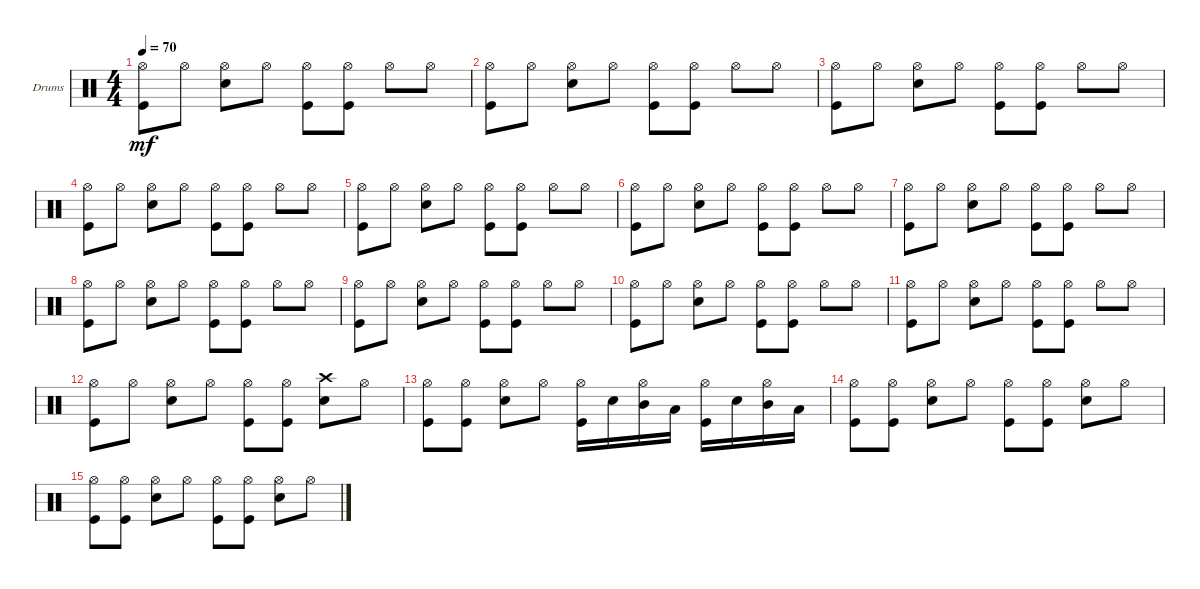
\defaultSystemsLayout 4
\bracketExtendMode groupsimilarinstruments
\firstSystemTrackNameOrientation horizontal
\otherSystemsTrackNameOrientation horizontal
\track ("Drumkit" "Drums") {instrument percussion}
\staff {score}
\articulation defaults
\ts (4 4)
\tempo 70
\clef neutral
\ks c
("Hi-Hat (open)" "Kick (hit)").8{dy mf} "Hi-Hat (open)".8 ("Hi-Hat (open)" "Snare (hit) 2").8 "Hi-Hat (open)".8 ("Hi-Hat (open)" "Kick (hit)").8 ("Hi-Hat (open)" "Kick (hit)").8 "Hi-Hat (open)".8 "Hi-Hat (open)".8 |
("Hi-Hat (open)" "Kick (hit)").8 "Hi-Hat (open)".8 ("Hi-Hat (open)" "Snare (hit) 2").8 "Hi-Hat (open)".8 ("Hi-Hat (open)" "Kick (hit)").8 ("Hi-Hat (open)" "Kick (hit)").8 "Hi-Hat (open)".8 "Hi-Hat (open)".8 |
("Hi-Hat (open)" "Kick (hit)").8 "Hi-Hat (open)".8 ("Hi-Hat (open)" "Snare (hit) 2").8 "Hi-Hat (open)".8 ("Hi-Hat (open)" "Kick (hit)").8 ("Hi-Hat (open)" "Kick (hit)").8 "Hi-Hat (open)".8 "Hi-Hat (open)".8 |
("Hi-Hat (open)" "Kick (hit)").8 "Hi-Hat (open)".8 ("Hi-Hat (open)" "Snare (hit) 2").8 "Hi-Hat (open)".8 ("Hi-Hat (open)" "Kick (hit)").8 ("Hi-Hat (open)" "Kick (hit)").8 "Hi-Hat (open)".8 "Hi-Hat (open)".8 |
("Hi-Hat (open)" "Kick (hit)").8 "Hi-Hat (open)".8 ("Hi-Hat (open)" "Snare (hit) 2").8 "Hi-Hat (open)".8 ("Hi-Hat (open)" "Kick (hit)").8 ("Hi-Hat (open)" "Kick (hit)").8 "Hi-Hat (open)".8 "Hi-Hat (open)".8 |
("Hi-Hat (open)" "Kick (hit)").8 "Hi-Hat (open)".8 ("Hi-Hat (open)" "Snare (hit) 2").8 "Hi-Hat (open)".8 ("Hi-Hat (open)" "Kick (hit)").8 ("Hi-Hat (open)" "Kick (hit)").8 "Hi-Hat (open)".8 "Hi-Hat (open)".8 |
("Hi-Hat (open)" "Kick (hit)").8 "Hi-Hat (open)".8 ("Hi-Hat (open)" "Snare (hit) 2").8 "Hi-Hat (open)".8 ("Hi-Hat (open)" "Kick (hit)").8 ("Hi-Hat (open)" "Kick (hit)").8 "Hi-Hat (open)".8 "Hi-Hat (open)".8 |
("Hi-Hat (open)" "Kick (hit)").8 "Hi-Hat (open)".8 ("Hi-Hat (open)" "Snare (hit) 2").8 "Hi-Hat (open)".8 ("Hi-Hat (open)" "Kick (hit)").8 ("Hi-Hat (open)" "Kick (hit)").8 "Hi-Hat (open)".8 "Hi-Hat (open)".8 |
("Hi-Hat (open)" "Kick (hit)").8 "Hi-Hat (open)".8 ("Hi-Hat (open)" "Snare (hit) 2").8 "Hi-Hat (open)".8 ("Hi-Hat (open)" "Kick (hit)").8 ("Hi-Hat (open)" "Kick (hit)").8 "Hi-Hat (open)".8 "Hi-Hat (open)".8 |
("Hi-Hat (open)" "Kick (hit)").8 "Hi-Hat (open)".8 ("Hi-Hat (open)" "Snare (hit) 2").8 "Hi-Hat (open)".8 ("Hi-Hat (open)" "Kick (hit)").8 ("Hi-Hat (open)" "Kick (hit)").8 "Hi-Hat (open)".8 "Hi-Hat (open)".8 |
("Hi-Hat (open)" "Kick (hit)").8 "Hi-Hat (open)".8 ("Hi-Hat (open)" "Snare (hit) 2").8 "Hi-Hat (open)".8 ("Hi-Hat (open)" "Kick (hit)").8 ("Hi-Hat (open)" "Kick (hit)").8 "Hi-Hat (open)".8 "Hi-Hat (open)".8 |
("Hi-Hat (open)" "Kick (hit)").8 "Hi-Hat (open)".8 ("Hi-Hat (open)" "Snare (hit) 2").8 "Hi-Hat (open)".8 ("Hi-Hat (open)" "Kick (hit)").8 ("Hi-Hat (open)" "Kick (hit)").8 ("Snare (hit) 2" "Crash high (hit)").8 "Hi-Hat (open)".8 |
("Kick (hit)" "Hi-Hat (open)").8 ("Kick (hit)" "Hi-Hat (open)").8 ("Snare (hit) 2" "Hi-Hat (open)").8 "Hi-Hat (open)".8 ("Hi-Hat (open)" "Kick (hit)").16 "Snare (hit) 2".16 ("Hi-Hat (open)" "Mid Tom (hit)").16 "Low Tom (hit)".16 ("Hi-Hat (open)" "Kick (hit)").16 "Snare (hit) 2".16 ("Hi-Hat (open)" "Mid Tom (hit)").16 "Low Tom (hit)".16 |
("Kick (hit)" "Hi-Hat (open)").8 ("Kick (hit)" "Hi-Hat (open)").8 ("Snare (hit) 2" "Hi-Hat (open)").8 "Hi-Hat (open)".8 ("Kick (hit)" "Hi-Hat (open)").8 ("Kick (hit)" "Hi-Hat (open)").8 ("Snare (hit) 2" "Hi-Hat (open)").8 "Hi-Hat (open)".8 |
("Kick (hit)" "Hi-Hat (open)").8 ("Kick (hit)" "Hi-Hat (open)").8 ("Snare (hit) 2" "Hi-Hat (open)").8 "Hi-Hat (open)".8 ("Kick (hit)" "Hi-Hat (open)").8 ("Kick (hit)" "Hi-Hat (open)").8 ("Snare (hit) 2" "Hi-Hat (open)").8 "Hi-Hat (open)".8
